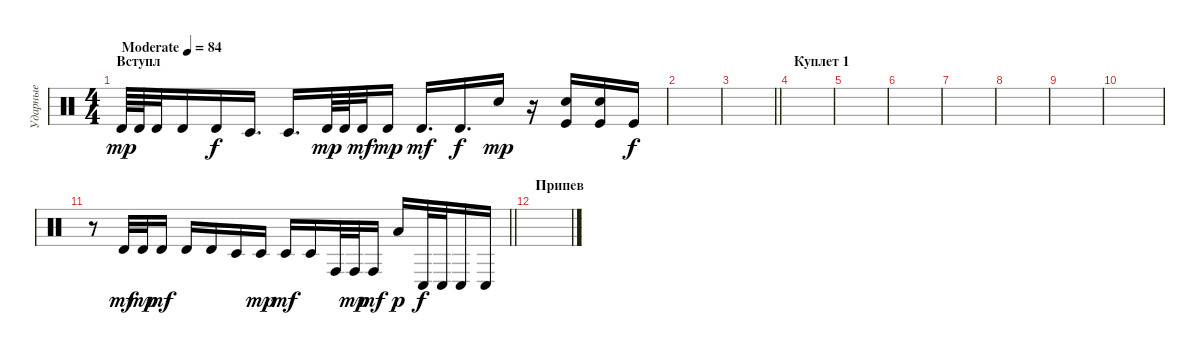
\track ("Ударные" "Ударные") {instrument percussion}
\staff {score}
\articulation defaults
\ts (4 4)
\section ("" "Вступл")
\tempo (84 "Moderate")
\clef neutral
\ks c "Timbale high (hit)".64{dy mp} "Timbale high (hit)".64 "Timbale high (hit)".32 "Timbale high (hit)".16 "Timbale high (hit)".16{dy f} "Timbale low (hit)".16{d} "Timbale low (hit)".16{d} "Timbale high (hit)".64{dy mp} "Timbale high (hit)".64 "Timbale high (hit)".32{dy mf} "Timbale high (hit)".16{dy mp} "Timbale high (hit)".16{d dy mf} "Timbale high (hit)".16{d dy f} "Metronome (bell)".16{dy mp}
r.16 ("Electric Snare (hit)" "Kick (hit)").16 ("Electric Snare (hit)" "Kick (hit)").16 "Kick (hit)".16{dy f} |
|
\barLineRight lightlight
|
\section ("" "Куплет 1")
|
|
|
|
|
|
|
\barLineRight lightlight
r.8 "Timbale high (hit)".32{dy mf} "Timbale high (hit)".32{dy mp} "Timbale high (hit)".16{dy mf} "Timbale high (hit)".16 "Timbale high (hit)".16 "Timbale low (hit)".16 "Timbale low (hit)".16{dy mp} "Timbale low (hit)".16{dy mf} "Timbale low (hit)".16 "Conga high (hit)".32 "Conga high (hit)".32{dy mp} "Conga high (hit)".16{dy mf} "Low Tom (hit)".16{dy p} "Conga low (hit)".32{dy f} "Conga low (hit)".32 "Conga low (hit)".16 "Conga low (hit)".16 |
\section ("" "Припев ")
